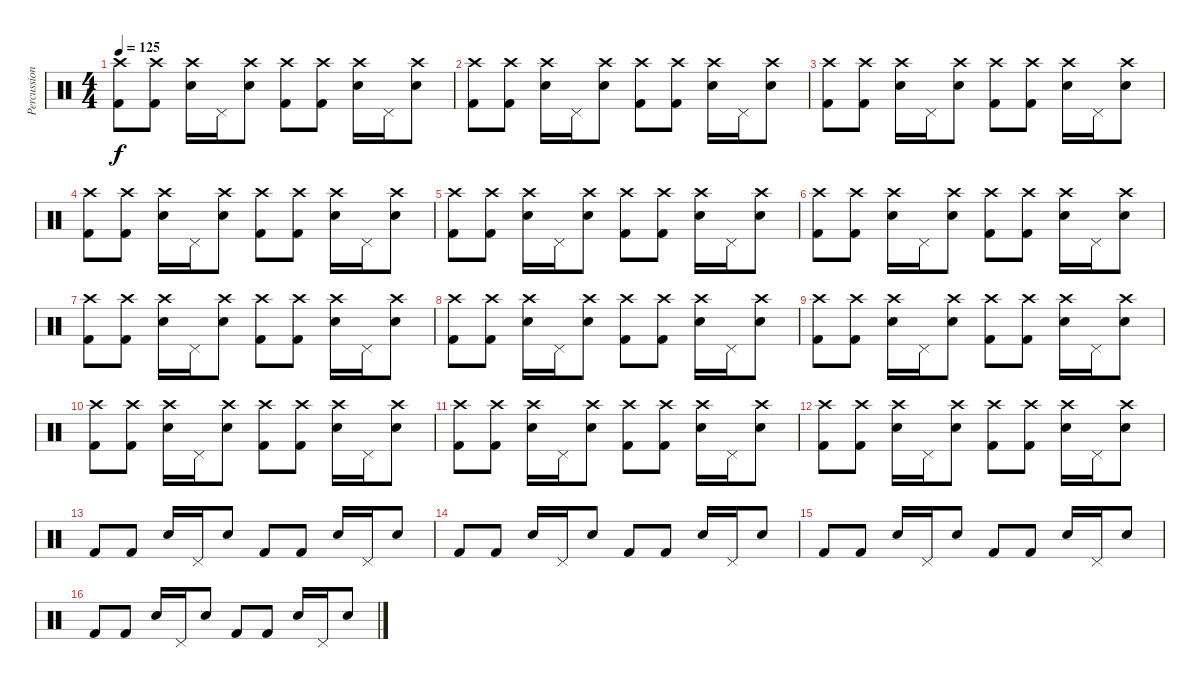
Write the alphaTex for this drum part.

\track ("Percussion" "Percussion") {instrument percussion}
\staff {score}
\articulation defaults
\ts (4 4)
\tempo 125
\clef neutral
\ks c
("Crash high (hit)" "Kick (hit) 2").8{dy f} ("Crash high (hit)" "Kick (hit) 2").8 ("Crash high (hit)" "Electric Snare (hit)").16 "Pedal Hi-Hat (hit)".16 ("Crash high (hit)" "Electric Snare (hit)").8 ("Crash high (hit)" "Kick (hit) 2").8 ("Crash high (hit)" "Kick (hit) 2").8 ("Crash high (hit)" "Electric Snare (hit)").16 "Pedal Hi-Hat (hit)".16 ("Crash high (hit)" "Electric Snare (hit)").8 |
("Crash high (hit)" "Kick (hit) 2").8 ("Crash high (hit)" "Kick (hit) 2").8 ("Crash high (hit)" "Electric Snare (hit)").16 "Pedal Hi-Hat (hit)".16 ("Crash high (hit)" "Electric Snare (hit)").8 ("Crash high (hit)" "Kick (hit) 2").8 ("Crash high (hit)" "Kick (hit) 2").8 ("Crash high (hit)" "Electric Snare (hit)").16 "Pedal Hi-Hat (hit)".16 ("Crash high (hit)" "Electric Snare (hit)").8 |
("Crash high (hit)" "Kick (hit) 2").8 ("Crash high (hit)" "Kick (hit) 2").8 ("Crash high (hit)" "Electric Snare (hit)").16 "Pedal Hi-Hat (hit)".16 ("Crash high (hit)" "Electric Snare (hit)").8 ("Crash high (hit)" "Kick (hit) 2").8 ("Crash high (hit)" "Kick (hit) 2").8 ("Crash high (hit)" "Electric Snare (hit)").16 "Pedal Hi-Hat (hit)".16 ("Crash high (hit)" "Electric Snare (hit)").8 |
("Crash high (hit)" "Kick (hit) 2").8 ("Crash high (hit)" "Kick (hit) 2").8 ("Crash high (hit)" "Electric Snare (hit)").16 "Pedal Hi-Hat (hit)".16 ("Crash high (hit)" "Electric Snare (hit)").8 ("Crash high (hit)" "Kick (hit) 2").8 ("Crash high (hit)" "Kick (hit) 2").8 ("Crash high (hit)" "Electric Snare (hit)").16 "Pedal Hi-Hat (hit)".16 ("Crash high (hit)" "Electric Snare (hit)").8 |
("Crash high (hit)" "Kick (hit) 2").8 ("Crash high (hit)" "Kick (hit) 2").8 ("Crash high (hit)" "Electric Snare (hit)").16 "Pedal Hi-Hat (hit)".16 ("Crash high (hit)" "Electric Snare (hit)").8 ("Crash high (hit)" "Kick (hit) 2").8 ("Crash high (hit)" "Kick (hit) 2").8 ("Crash high (hit)" "Electric Snare (hit)").16 "Pedal Hi-Hat (hit)".16 ("Crash high (hit)" "Electric Snare (hit)").8 |
("Crash high (hit)" "Kick (hit) 2").8 ("Crash high (hit)" "Kick (hit) 2").8 ("Crash high (hit)" "Electric Snare (hit)").16 "Pedal Hi-Hat (hit)".16 ("Crash high (hit)" "Electric Snare (hit)").8 ("Crash high (hit)" "Kick (hit) 2").8 ("Crash high (hit)" "Kick (hit) 2").8 ("Crash high (hit)" "Electric Snare (hit)").16 "Pedal Hi-Hat (hit)".16 ("Crash high (hit)" "Electric Snare (hit)").8 |
("Crash high (hit)" "Kick (hit) 2").8 ("Crash high (hit)" "Kick (hit) 2").8 ("Crash high (hit)" "Electric Snare (hit)").16 "Pedal Hi-Hat (hit)".16 ("Crash high (hit)" "Electric Snare (hit)").8 ("Crash high (hit)" "Kick (hit) 2").8 ("Crash high (hit)" "Kick (hit) 2").8 ("Crash high (hit)" "Electric Snare (hit)").16 "Pedal Hi-Hat (hit)".16 ("Crash high (hit)" "Electric Snare (hit)").8 |
("Crash high (hit)" "Kick (hit) 2").8 ("Crash high (hit)" "Kick (hit) 2").8 ("Crash high (hit)" "Electric Snare (hit)").16 "Pedal Hi-Hat (hit)".16 ("Crash high (hit)" "Electric Snare (hit)").8 ("Crash high (hit)" "Kick (hit) 2").8 ("Crash high (hit)" "Kick (hit) 2").8 ("Crash high (hit)" "Electric Snare (hit)").16 "Pedal Hi-Hat (hit)".16 ("Crash high (hit)" "Electric Snare (hit)").8 |
("Crash high (hit)" "Kick (hit) 2").8 ("Crash high (hit)" "Kick (hit) 2").8 ("Crash high (hit)" "Electric Snare (hit)").16 "Pedal Hi-Hat (hit)".16 ("Crash high (hit)" "Electric Snare (hit)").8 ("Crash high (hit)" "Kick (hit) 2").8 ("Crash high (hit)" "Kick (hit) 2").8 ("Crash high (hit)" "Electric Snare (hit)").16 "Pedal Hi-Hat (hit)".16 ("Crash high (hit)" "Electric Snare (hit)").8 |
("Crash high (hit)" "Kick (hit) 2").8 ("Crash high (hit)" "Kick (hit) 2").8 ("Crash high (hit)" "Electric Snare (hit)").16 "Pedal Hi-Hat (hit)".16 ("Crash high (hit)" "Electric Snare (hit)").8 ("Crash high (hit)" "Kick (hit) 2").8 ("Crash high (hit)" "Kick (hit) 2").8 ("Crash high (hit)" "Electric Snare (hit)").16 "Pedal Hi-Hat (hit)".16 ("Crash high (hit)" "Electric Snare (hit)").8 |
("Crash high (hit)" "Kick (hit) 2").8 ("Crash high (hit)" "Kick (hit) 2").8 ("Crash high (hit)" "Electric Snare (hit)").16 "Pedal Hi-Hat (hit)".16 ("Crash high (hit)" "Electric Snare (hit)").8 ("Crash high (hit)" "Kick (hit) 2").8 ("Crash high (hit)" "Kick (hit) 2").8 ("Crash high (hit)" "Electric Snare (hit)").16 "Pedal Hi-Hat (hit)".16 ("Crash high (hit)" "Electric Snare (hit)").8 |
("Crash high (hit)" "Kick (hit) 2").8 ("Crash high (hit)" "Kick (hit) 2").8 ("Crash high (hit)" "Electric Snare (hit)").16 "Pedal Hi-Hat (hit)".16 ("Crash high (hit)" "Electric Snare (hit)").8 ("Crash high (hit)" "Kick (hit) 2").8 ("Crash high (hit)" "Kick (hit) 2").8 ("Crash high (hit)" "Electric Snare (hit)").16 "Pedal Hi-Hat (hit)".16 ("Crash high (hit)" "Electric Snare (hit)").8 |
"Kick (hit) 2".8 "Kick (hit) 2".8 "Electric Snare (hit)".16 "Pedal Hi-Hat (hit)".16 "Electric Snare (hit)".8 "Kick (hit) 2".8 "Kick (hit) 2".8 "Electric Snare (hit)".16 "Pedal Hi-Hat (hit)".16 "Electric Snare (hit)".8 |
"Kick (hit) 2".8 "Kick (hit) 2".8 "Electric Snare (hit)".16 "Pedal Hi-Hat (hit)".16 "Electric Snare (hit)".8 "Kick (hit) 2".8 "Kick (hit) 2".8 "Electric Snare (hit)".16 "Pedal Hi-Hat (hit)".16 "Electric Snare (hit)".8 |
"Kick (hit) 2".8 "Kick (hit) 2".8 "Electric Snare (hit)".16 "Pedal Hi-Hat (hit)".16 "Electric Snare (hit)".8 "Kick (hit) 2".8 "Kick (hit) 2".8 "Electric Snare (hit)".16 "Pedal Hi-Hat (hit)".16 "Electric Snare (hit)".8 |
"Kick (hit) 2".8 "Kick (hit) 2".8 "Electric Snare (hit)".16 "Pedal Hi-Hat (hit)".16 "Electric Snare (hit)".8 "Kick (hit) 2".8 "Kick (hit) 2".8 "Electric Snare (hit)".16 "Pedal Hi-Hat (hit)".16 "Electric Snare (hit)".8
